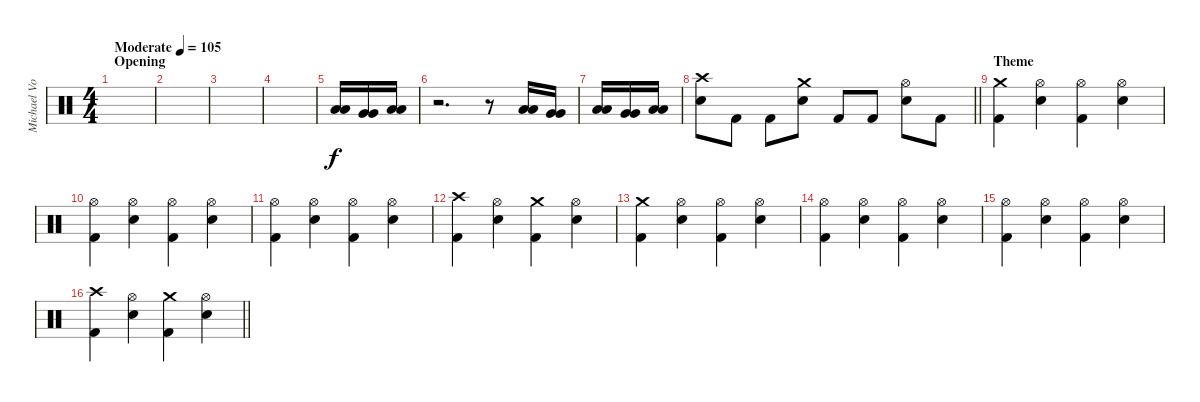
\track ("Michael Von Knorring" "Michael Vo") {instrument percussion}
\staff {score}
\articulation defaults
\ts (4 4)
\section ("" "Opening")
\tempo (105 "Moderate")
\clef neutral
\ks c
|
|
|
|
("Low Tom (hit)" "Low Tom (hit)").16 ("Very Low Tom (hit)" "Very Low Tom (hit)").16 ("Low Floor Tom (hit)" "Low Floor Tom (hit)").16 |
r.2{d} r.8 ("Low Tom (hit)" "Low Tom (hit)").16 ("Very Low Tom (hit)" "Very Low Tom (hit)").16 |
("Low Tom (hit)" "Low Tom (hit)").16 ("Very Low Tom (hit)" "Very Low Tom (hit)").16 ("Low Floor Tom (hit)" "Low Floor Tom (hit)").16 |
\barLineRight lightlight
("Crash high (hit)" "Snare (hit) 2").8 "Kick (hit) 2".8 "Kick (hit) 2".8 ("Crash medium (hit)" "Snare (hit) 2").8 "Kick (hit) 2".8 "Kick (hit) 2".8 ("Hi-Hat (open)" "Snare (hit) 2").8 "Kick (hit) 2".8 |
\section ("" "Theme")
("Crash medium (hit)" "Kick (hit) 2").4 ("Hi-Hat (open)" "Snare (hit) 2").4 ("Hi-Hat (open)" "Kick (hit) 2").4 ("Hi-Hat (open)" "Snare (hit) 2").4 |
("Hi-Hat (open)" "Kick (hit) 2").4 ("Hi-Hat (open)" "Snare (hit) 2").4 ("Hi-Hat (open)" "Kick (hit) 2").4 ("Hi-Hat (open)" "Snare (hit) 2").4 |
("Hi-Hat (open)" "Kick (hit) 2").4 ("Hi-Hat (open)" "Snare (hit) 2").4 ("Hi-Hat (open)" "Kick (hit) 2").4 ("Hi-Hat (open)" "Snare (hit) 2").4 |
("Crash high (hit)" "Kick (hit) 2").4 ("Hi-Hat (open)" "Snare (hit) 2").4 ("Crash medium (hit)" "Kick (hit) 2").4 ("Hi-Hat (open)" "Snare (hit) 2").4 |
("Crash medium (hit)" "Kick (hit) 2").4 ("Hi-Hat (open)" "Snare (hit) 2").4 ("Hi-Hat (open)" "Kick (hit) 2").4 ("Hi-Hat (open)" "Snare (hit) 2").4 |
("Hi-Hat (open)" "Kick (hit) 2").4 ("Hi-Hat (open)" "Snare (hit) 2").4 ("Hi-Hat (open)" "Kick (hit) 2").4 ("Hi-Hat (open)" "Snare (hit) 2").4 |
("Hi-Hat (open)" "Kick (hit) 2").4 ("Hi-Hat (open)" "Snare (hit) 2").4 ("Hi-Hat (open)" "Kick (hit) 2").4 ("Hi-Hat (open)" "Snare (hit) 2").4 |
\barLineRight lightlight
("Crash high (hit)" "Kick (hit) 2").4 ("Hi-Hat (open)" "Snare (hit) 2").4 ("Crash medium (hit)" "Kick (hit) 2").4 ("Hi-Hat (open)" "Snare (hit) 2").4
